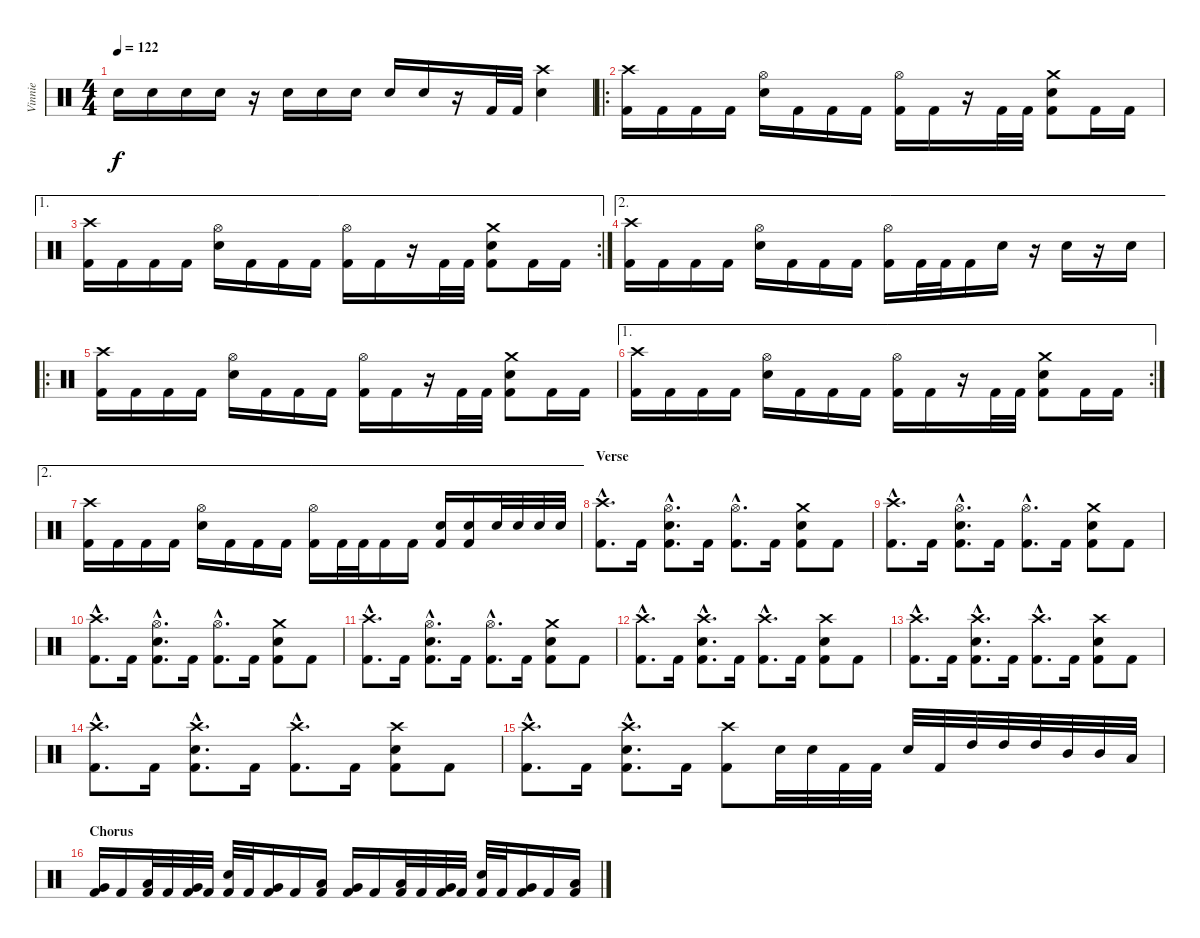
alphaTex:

\track ("Vinnie" "Vinnie") {instrument percussion}
\staff {score}
\articulation defaults
\ts (4 4)
\tempo 122
\clef neutral
\ks c "Snare (hit) 2".16{dy f} "Snare (hit) 2".16 "Snare (hit) 2".16 "Snare (hit) 2".16
r.16 "Snare (hit) 2".16 "Snare (hit) 2".16 "Snare (hit) 2".16 "Snare (hit) 2".16 "Snare (hit) 2".16 r.16 "Kick (hit) 2".32 "Kick (hit) 2".32 ("Crash high (hit)" "Snare (hit) 2").4 |
\ro
("Crash high (hit)" "Kick (hit) 2").16 "Kick (hit) 2".16 "Kick (hit) 2".16 "Kick (hit) 2".16 ("Hi-Hat (open)" "Snare (hit) 2").16 "Kick (hit) 2".16 "Kick (hit) 2".16 "Kick (hit) 2".16 ("Hi-Hat (open)" "Kick (hit) 2").16 "Kick (hit) 2".16 r.16 "Kick (hit) 2".32 "Kick (hit) 2".32 ("Crash medium (hit)" "Snare (hit) 2" "Kick (hit) 2").8 "Kick (hit) 2".16 "Kick (hit) 2".16 |
\ae 1
\rc 2
("Crash high (hit)" "Kick (hit) 2").16 "Kick (hit) 2".16 "Kick (hit) 2".16 "Kick (hit) 2".16 ("Hi-Hat (open)" "Snare (hit) 2").16 "Kick (hit) 2".16 "Kick (hit) 2".16 "Kick (hit) 2".16 ("Hi-Hat (open)" "Kick (hit) 2").16 "Kick (hit) 2".16 r.16 "Kick (hit) 2".32 "Kick (hit) 2".32 ("Crash medium (hit)" "Snare (hit) 2" "Kick (hit) 2").8 "Kick (hit) 2".16 "Kick (hit) 2".16 |
\ae 2
("Crash high (hit)" "Kick (hit) 2").16 "Kick (hit) 2".16 "Kick (hit) 2".16 "Kick (hit) 2".16 ("Hi-Hat (open)" "Snare (hit) 2").16 "Kick (hit) 2".16 "Kick (hit) 2".16 "Kick (hit) 2".16 ("Hi-Hat (open)" "Kick (hit) 2").16 "Kick (hit) 2".32 "Kick (hit) 2".32 "Kick (hit) 2".16 "Snare (hit) 2".16 r.16 "Snare (hit) 2".16 r.16 "Snare (hit) 2".16 |
\ro
("Crash high (hit)" "Kick (hit) 2").16 "Kick (hit) 2".16 "Kick (hit) 2".16 "Kick (hit) 2".16 ("Hi-Hat (open)" "Snare (hit) 2").16 "Kick (hit) 2".16 "Kick (hit) 2".16 "Kick (hit) 2".16 ("Hi-Hat (open)" "Kick (hit) 2").16 "Kick (hit) 2".16 r.16 "Kick (hit) 2".32 "Kick (hit) 2".32 ("Crash medium (hit)" "Snare (hit) 2" "Kick (hit) 2").8 "Kick (hit) 2".16 "Kick (hit) 2".16 |
\ae 1
\rc 2
("Crash high (hit)" "Kick (hit) 2").16 "Kick (hit) 2".16 "Kick (hit) 2".16 "Kick (hit) 2".16 ("Hi-Hat (open)" "Snare (hit) 2").16 "Kick (hit) 2".16 "Kick (hit) 2".16 "Kick (hit) 2".16 ("Hi-Hat (open)" "Kick (hit) 2").16 "Kick (hit) 2".16 r.16 "Kick (hit) 2".32 "Kick (hit) 2".32 ("Crash medium (hit)" "Snare (hit) 2" "Kick (hit) 2").8 "Kick (hit) 2".16 "Kick (hit) 2".16 |
\ae 2
("Crash high (hit)" "Kick (hit) 2").16 "Kick (hit) 2".16 "Kick (hit) 2".16 "Kick (hit) 2".16 ("Hi-Hat (open)" "Snare (hit) 2").16 "Kick (hit) 2".16 "Kick (hit) 2".16 "Kick (hit) 2".16 ("Hi-Hat (open)" "Kick (hit) 2").16 "Kick (hit) 2".32 "Kick (hit) 2".32 "Kick (hit) 2".16 "Kick (hit) 2".16 ("Snare (hit) 2" "Kick (hit) 2").16 ("Snare (hit) 2" "Kick (hit) 2").16 "Snare (hit) 2".32 "Snare (hit) 2".32 "Snare (hit) 2".32 "Snare (hit) 2".32 |
\section ("" "Verse")
("Crash high (hit)"{hac} "Kick (hit) 2"{hac}).8{d} "Kick (hit) 2".16 ("Hi-Hat (open)"{hac} "Snare (hit) 2"{hac} "Kick (hit) 2"{hac}).8{d} "Kick (hit) 2".16 ("Hi-Hat (open)"{hac} "Kick (hit) 2"{hac}).8{d} "Kick (hit) 2".16 ("Crash medium (hit)" "Snare (hit) 2" "Kick (hit) 2").8 "Kick (hit) 2".8 |
("Crash high (hit)"{hac} "Kick (hit) 2"{hac}).8{d} "Kick (hit) 2".16 ("Hi-Hat (open)"{hac} "Snare (hit) 2"{hac} "Kick (hit) 2"{hac}).8{d} "Kick (hit) 2".16 ("Hi-Hat (open)"{hac} "Kick (hit) 2"{hac}).8{d} "Kick (hit) 2".16 ("Crash medium (hit)" "Snare (hit) 2" "Kick (hit) 2").8 "Kick (hit) 2".8 |
("Crash high (hit)"{hac} "Kick (hit) 2"{hac}).8{d} "Kick (hit) 2".16 ("Hi-Hat (open)"{hac} "Snare (hit) 2"{hac} "Kick (hit) 2"{hac}).8{d} "Kick (hit) 2".16 ("Hi-Hat (open)"{hac} "Kick (hit) 2"{hac}).8{d} "Kick (hit) 2".16 ("Crash medium (hit)" "Snare (hit) 2" "Kick (hit) 2").8 "Kick (hit) 2".8 |
("Crash high (hit)"{hac} "Kick (hit) 2"{hac}).8{d} "Kick (hit) 2".16 ("Hi-Hat (open)"{hac} "Snare (hit) 2"{hac} "Kick (hit) 2"{hac}).8{d} "Kick (hit) 2".16 ("Hi-Hat (open)"{hac} "Kick (hit) 2"{hac}).8{d} "Kick (hit) 2".16 ("Crash medium (hit)" "Snare (hit) 2" "Kick (hit) 2").8 "Kick (hit) 2".8 |
("Crash high (hit)"{hac} "Kick (hit) 2"{hac}).8{d} "Kick (hit) 2".16 ("Crash high (hit)"{hac} "Snare (hit) 2"{hac} "Kick (hit) 2"{hac}).8{d} "Kick (hit) 2".16 ("Crash high (hit)"{hac} "Kick (hit) 2"{hac}).8{d} "Kick (hit) 2".16 ("Crash high (hit)" "Snare (hit) 2" "Kick (hit) 2").8 "Kick (hit) 2".8 |
("Crash high (hit)"{hac} "Kick (hit) 2"{hac}).8{d} "Kick (hit) 2".16 ("Crash high (hit)"{hac} "Snare (hit) 2"{hac} "Kick (hit) 2"{hac}).8{d} "Kick (hit) 2".16 ("Crash high (hit)"{hac} "Kick (hit) 2"{hac}).8{d} "Kick (hit) 2".16 ("Crash high (hit)" "Snare (hit) 2" "Kick (hit) 2").8 "Kick (hit) 2".8 |
("Crash high (hit)"{hac} "Kick (hit) 2"{hac}).8{d} "Kick (hit) 2".16 ("Crash high (hit)"{hac} "Snare (hit) 2"{hac} "Kick (hit) 2"{hac}).8{d} "Kick (hit) 2".16 ("Crash high (hit)"{hac} "Kick (hit) 2"{hac}).8{d} "Kick (hit) 2".16 ("Crash high (hit)" "Snare (hit) 2" "Kick (hit) 2").8 "Kick (hit) 2".8 |
("Crash high (hit)"{hac} "Kick (hit) 2"{hac}).8{d} "Kick (hit) 2".16 ("Crash high (hit)"{hac} "Snare (hit) 2"{hac} "Kick (hit) 2"{hac}).8{d} "Kick (hit) 2".16 ("Crash high (hit)" "Kick (hit) 2").8 "Snare (hit) 2".32 "Snare (hit) 2".32 "Kick (hit) 2".32 "Kick (hit) 2".32 "Snare (hit) 2".32 "Kick (hit) 2".32 "High Tom (hit)".32 "High Tom (hit)".32 "High Tom (hit)".32 "Mid Tom (hit)".32 "Mid Tom (hit)".32 "Low Tom (hit)".32 |
\section ("" "Chorus")
("Very Low Tom (hit)" "Kick (hit) 2").16 "Kick (hit) 2".16 ("Low Tom (hit)" "Kick (hit) 2").32 "Kick (hit) 2".32 ("Very Low Tom (hit)" "Kick (hit) 2").32 "Kick (hit) 2".32 ("Snare (hit) 2" "Kick (hit) 2").32 "Kick (hit) 2".32 ("Very Low Tom (hit)" "Kick (hit) 2").16 "Kick (hit) 2".16 ("Low Tom (hit)" "Kick (hit) 2").16 ("Very Low Tom (hit)" "Kick (hit) 2").16 "Kick (hit) 2".16 ("Low Tom (hit)" "Kick (hit) 2").32 "Kick (hit) 2".32 ("Very Low Tom (hit)" "Kick (hit) 2").32 "Kick (hit) 2".32 ("Snare (hit) 2" "Kick (hit) 2").32 "Kick (hit) 2".32 ("Very Low Tom (hit)" "Kick (hit) 2").16 "Kick (hit) 2".16 ("Low Tom (hit)" "Kick (hit) 2").16
